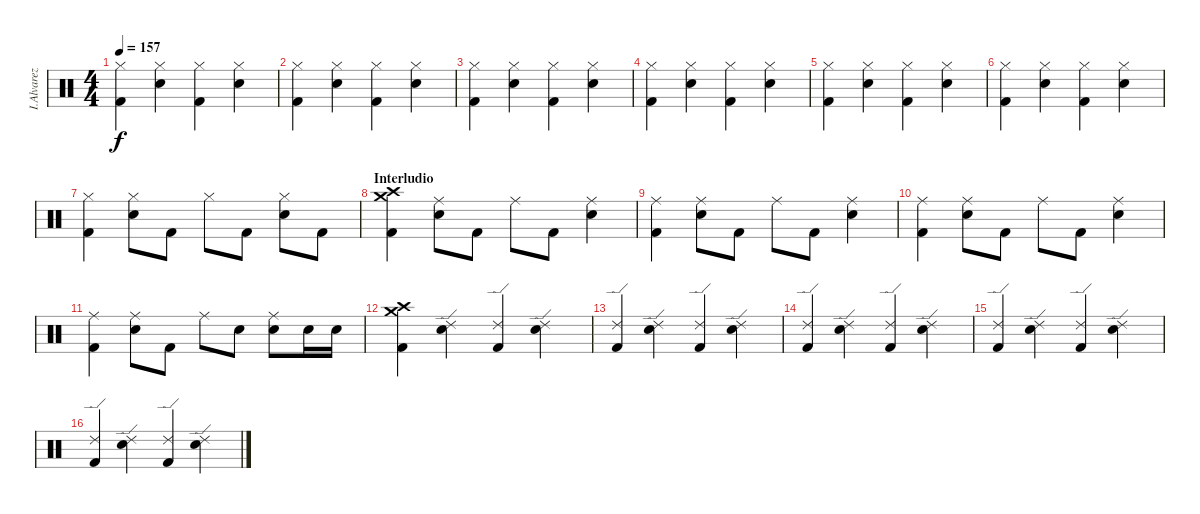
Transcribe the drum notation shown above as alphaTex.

\track ("I.Alvarez" "I.Alvarez") {instrument percussion}
\staff {score}
\articulation defaults
\ts (4 4)
\tempo 157
\clef neutral
\ks c
("Hi-Hat (closed)" "Kick (hit) 2").4{dy f} ("Hi-Hat (closed)" "Electric Snare (hit)").4 ("Hi-Hat (closed)" "Kick (hit) 2").4 ("Hi-Hat (closed)" "Electric Snare (hit)").4 |
("Hi-Hat (closed)" "Kick (hit) 2").4 ("Hi-Hat (closed)" "Electric Snare (hit)").4 ("Hi-Hat (closed)" "Kick (hit) 2").4 ("Hi-Hat (closed)" "Electric Snare (hit)").4 |
("Hi-Hat (closed)" "Kick (hit) 2").4 ("Hi-Hat (closed)" "Electric Snare (hit)").4 ("Hi-Hat (closed)" "Kick (hit) 2").4 ("Hi-Hat (closed)" "Electric Snare (hit)").4 |
("Hi-Hat (closed)" "Kick (hit) 2").4 ("Hi-Hat (closed)" "Electric Snare (hit)").4 ("Hi-Hat (closed)" "Kick (hit) 2").4 ("Hi-Hat (closed)" "Electric Snare (hit)").4 |
("Hi-Hat (closed)" "Kick (hit) 2").4 ("Hi-Hat (closed)" "Electric Snare (hit)").4 ("Hi-Hat (closed)" "Kick (hit) 2").4 ("Hi-Hat (closed)" "Electric Snare (hit)").4 |
("Hi-Hat (closed)" "Kick (hit) 2").4 ("Hi-Hat (closed)" "Electric Snare (hit)").4 ("Hi-Hat (closed)" "Kick (hit) 2").4 ("Hi-Hat (closed)" "Electric Snare (hit)").4 |
("Hi-Hat (closed)" "Kick (hit) 2").4 ("Hi-Hat (closed)" "Electric Snare (hit)").8 "Kick (hit) 2".8 "Hi-Hat (closed)".8 "Kick (hit) 2".8 ("Hi-Hat (closed)" "Electric Snare (hit)").8 "Kick (hit) 2".8 |
\section ("" "Interludio")
("Crash medium (hit)" "Crash high (hit)" "Kick (hit) 2").4 ("Ride (middle)" "Electric Snare (hit)").8 "Kick (hit) 2".8 "Ride (middle)".8 "Kick (hit) 2".8 ("Ride (middle)" "Electric Snare (hit)").4 |
("Ride (middle)" "Kick (hit) 2").4 ("Ride (middle)" "Electric Snare (hit)").8 "Kick (hit) 2".8 "Ride (middle)".8 "Kick (hit) 2".8 ("Ride (middle)" "Electric Snare (hit)").4 |
("Ride (middle)" "Kick (hit) 2").4 ("Ride (middle)" "Electric Snare (hit)").8 "Kick (hit) 2".8 "Ride (middle)".8 "Kick (hit) 2".8 ("Ride (middle)" "Electric Snare (hit)").4 |
("Ride (middle)" "Kick (hit) 2").4 ("Ride (middle)" "Electric Snare (hit)").8 "Kick (hit) 2".8 "Ride (middle)".8 "Electric Snare (hit)".8 ("Ride (middle)" "Electric Snare (hit)").8 "Electric Snare (hit)".16 "Electric Snare (hit)".16 |
("Crash medium (hit)" "Crash high (hit)" "Kick (hit) 2").4 ("Ride (edge) 2" "Electric Snare (hit)").4 ("Ride (edge) 2" "Kick (hit) 2").4 ("Ride (edge) 2" "Electric Snare (hit)").4 |
("Ride (edge) 2" "Kick (hit) 2").4 ("Ride (edge) 2" "Electric Snare (hit)").4 ("Ride (edge) 2" "Kick (hit) 2").4 ("Ride (edge) 2" "Electric Snare (hit)").4 |
("Ride (edge) 2" "Kick (hit) 2").4 ("Ride (edge) 2" "Electric Snare (hit)").4 ("Ride (edge) 2" "Kick (hit) 2").4 ("Ride (edge) 2" "Electric Snare (hit)").4 |
("Ride (edge) 2" "Kick (hit) 2").4 ("Ride (edge) 2" "Electric Snare (hit)").4 ("Ride (edge) 2" "Kick (hit) 2").4 ("Ride (edge) 2" "Electric Snare (hit)").4 |
("Ride (edge) 2" "Kick (hit) 2").4 ("Ride (edge) 2" "Electric Snare (hit)").4 ("Ride (edge) 2" "Kick (hit) 2").4 ("Ride (edge) 2" "Electric Snare (hit)").4
